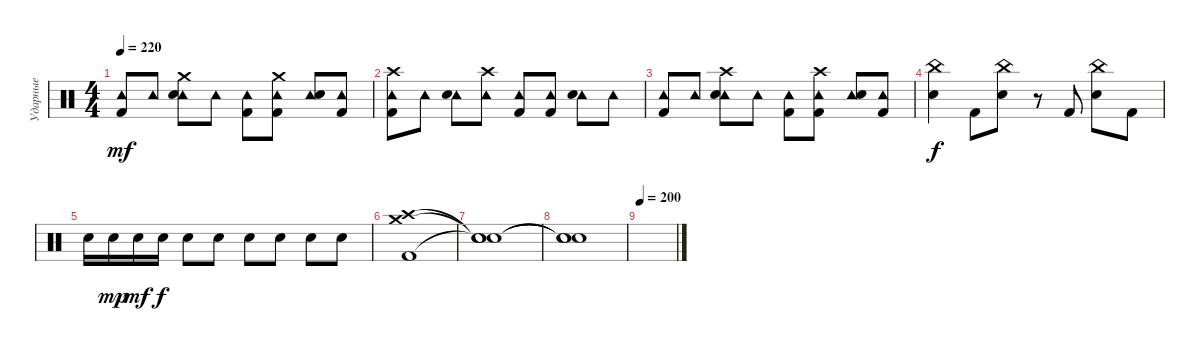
\track ("Ударные" "Ударные") {instrument percussion}
\staff {score}
\articulation defaults
\ts (4 4)
\tempo 220
\clef neutral
\ks c
("Tambourine (hit)" "Kick (hit) 2").8{dy mf} "Tambourine (hit)".8 ("Crash medium (hit)" "Tambourine (hit)" "Electric Snare (hit)").8 "Tambourine (hit)".8 ("Tambourine (hit)" "Kick (hit) 2").8 ("Crash medium (hit)" "Tambourine (hit)" "Kick (hit) 2").8 ("Tambourine (hit)" "Electric Snare (hit)").8 ("Tambourine (hit)" "Kick (hit) 2").8 |
("Crash high (hit)" "Tambourine (hit)" "Kick (hit) 2").8 "Tambourine (hit)".8 ("Tambourine (hit)" "Electric Snare (hit)").8 ("Crash high (hit)" "Tambourine (hit)").8 ("Tambourine (hit)" "Kick (hit) 2").8 ("Tambourine (hit)" "Kick (hit) 2").8 ("Tambourine (hit)" "Electric Snare (hit)").8 "Tambourine (hit)".8 |
("Tambourine (hit)" "Kick (hit) 2").8 "Tambourine (hit)".8 ("Crash high (hit)" "Tambourine (hit)" "Electric Snare (hit)").8 "Tambourine (hit)".8 ("Tambourine (hit)" "Kick (hit) 2").8 ("Crash high (hit)" "Tambourine (hit)" "Kick (hit) 2").8 ("Tambourine (hit)" "Electric Snare (hit)").8 ("Tambourine (hit)" "Kick (hit) 2").8 |
("China (hit)" "Electric Snare (hit)").4{dy f} "Kick (hit) 2".8 ("China (hit)" "Electric Snare (hit)").8 r.8 "Kick (hit) 2".8 ("China (hit)" "Electric Snare (hit)").8 "Kick (hit) 2".8 |
"Electric Snare (hit)".16 "Electric Snare (hit)".16{dy mp} "Electric Snare (hit)".16{dy mf} "Electric Snare (hit)".16{dy f} "Electric Snare (hit)".8 "Electric Snare (hit)".8 "Electric Snare (hit)".8 "Electric Snare (hit)".8 "Electric Snare (hit)".8 "Electric Snare (hit)".8 |
("Crash medium (hit)" "Crash high (hit)" "Kick (hit) 2").1 |
("Snare (hit)"{t} "Snare (hit)"{t} "Snare (hit)"{t}).1 |
("Snare (hit)"{t} "Snare (hit)"{t} "Snare (hit)"{t}).1 |
\tempo 200
